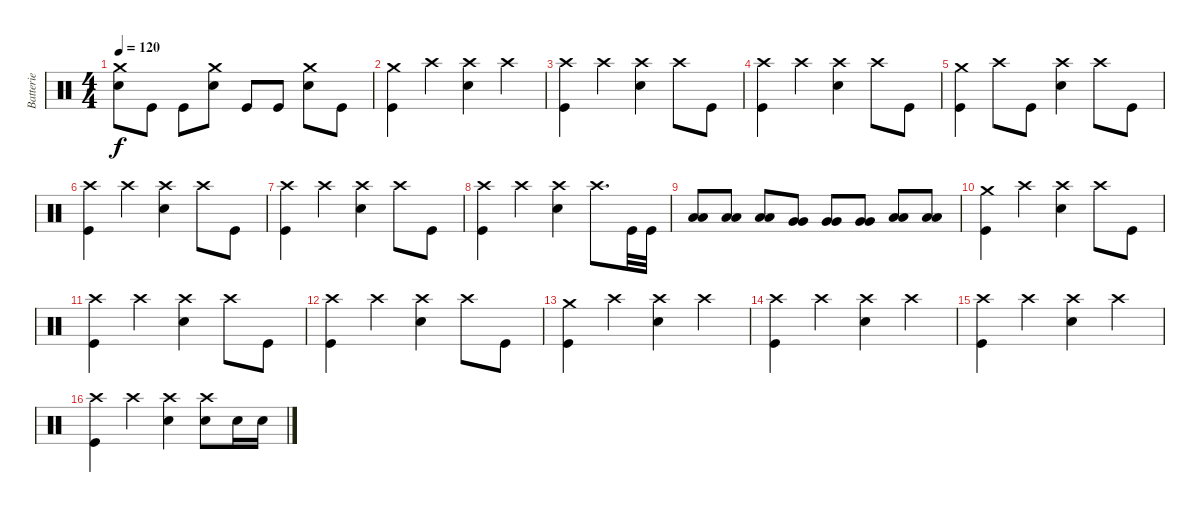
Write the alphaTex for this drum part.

\track ("Batterie" "Batterie") {instrument percussion}
\staff {score}
\articulation defaults
\ts (4 4)
\tempo 120
\clef neutral
\ks c
("Crash medium (hit)" "Electric Snare (hit)").8{dy f} "Kick (hit)".8 "Kick (hit)".8 ("Crash medium (hit)" "Electric Snare (hit)").8 "Kick (hit)".8 "Kick (hit)".8 ("Crash medium (hit)" "Electric Snare (hit)").8 "Kick (hit)".8 |
("Crash medium (hit)" "Kick (hit)").4 "Crash high (hit)".4 ("Crash high (hit)" "Electric Snare (hit)").4 "Crash high (hit)".4 |
("Crash high (hit)" "Kick (hit)").4 "Crash high (hit)".4 ("Crash high (hit)" "Electric Snare (hit)").4 "Crash high (hit)".8 "Kick (hit)".8 |
("Crash high (hit)" "Kick (hit)").4 "Crash high (hit)".4 ("Crash high (hit)" "Electric Snare (hit)").4 "Crash high (hit)".8 "Kick (hit)".8 |
("Crash medium (hit)" "Kick (hit)").4 "Crash high (hit)".8 "Kick (hit)".8 ("Crash high (hit)" "Electric Snare (hit)").4 "Crash high (hit)".8 "Kick (hit)".8 |
("Crash high (hit)" "Kick (hit)").4 "Crash high (hit)".4 ("Crash high (hit)" "Electric Snare (hit)").4 "Crash high (hit)".8 "Kick (hit)".8 |
("Crash high (hit)" "Kick (hit)").4 "Crash high (hit)".4 ("Crash high (hit)" "Electric Snare (hit)").4 "Crash high (hit)".8 "Kick (hit)".8 |
("Crash high (hit)" "Kick (hit)").4 "Crash high (hit)".4 ("Crash high (hit)" "Electric Snare (hit)").4 "Crash high (hit)".8{d} "Kick (hit)".32 "Kick (hit)".32 |
("Low Tom (hit)" "Low Tom (hit)").8{bd 30} ("Low Tom (hit)" "Low Tom (hit)").8{bd 30} ("Low Tom (hit)" "Low Tom (hit)").8{bd 30} ("Very Low Tom (hit)" "Very Low Tom (hit)").8{bd 30} ("Very Low Tom (hit)" "Very Low Tom (hit)").8{bd 30} ("Very Low Tom (hit)" "Very Low Tom (hit)").8{bd 30} ("Low Floor Tom (hit)" "Low Floor Tom (hit)").8{bd 30} ("Low Floor Tom (hit)" "Low Floor Tom (hit)").8{bd 30} |
("Crash medium (hit)" "Kick (hit)").4 "Crash high (hit)".4 ("Crash high (hit)" "Electric Snare (hit)").4 "Crash high (hit)".8 "Kick (hit)".8 |
("Crash high (hit)" "Kick (hit)").4 "Crash high (hit)".4 ("Crash high (hit)" "Electric Snare (hit)").4 "Crash high (hit)".8 "Kick (hit)".8 |
("Crash high (hit)" "Kick (hit)").4 "Crash high (hit)".4 ("Crash high (hit)" "Electric Snare (hit)").4 "Crash high (hit)".8 "Kick (hit)".8 |
("Crash medium (hit)" "Kick (hit)").4 "Crash high (hit)".4 ("Crash high (hit)" "Electric Snare (hit)").4 "Crash high (hit)".4 |
("Crash high (hit)" "Kick (hit)").4 "Crash high (hit)".4 ("Crash high (hit)" "Electric Snare (hit)").4 "Crash high (hit)".4 |
("Crash high (hit)" "Kick (hit)").4 "Crash high (hit)".4 ("Crash high (hit)" "Electric Snare (hit)").4 "Crash high (hit)".4 |
("Crash high (hit)" "Kick (hit)").4 "Crash high (hit)".4 ("Crash high (hit)" "Electric Snare (hit)").4 ("Crash high (hit)" "Electric Snare (hit)").8 "Electric Snare (hit)".16 "Electric Snare (hit)".16
